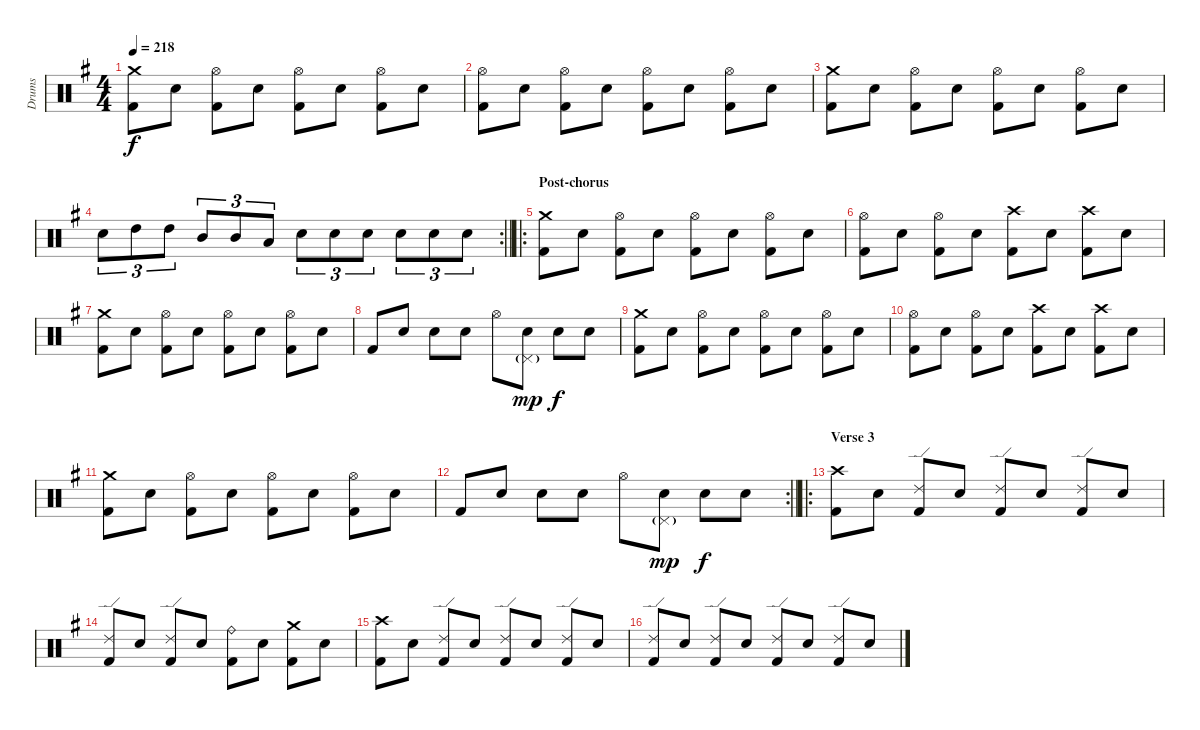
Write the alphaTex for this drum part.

\track ("Drums" "Drums") {solo instrument percussion}
\staff {score}
\articulation defaults
\ts (4 4)
\tempo 218
\clef neutral
\ks eminor
("Crash medium (hit)" "Kick (hit) 2").8{dy f} "Electric Snare (hit)".8 ("Hi-Hat (open)" "Kick (hit) 2").8 "Electric Snare (hit)".8 ("Hi-Hat (open)" "Kick (hit) 2").8 "Electric Snare (hit)".8 ("Hi-Hat (open)" "Kick (hit) 2").8 "Electric Snare (hit)".8 |
("Hi-Hat (open)" "Kick (hit) 2").8 "Electric Snare (hit)".8 ("Hi-Hat (open)" "Kick (hit) 2").8 "Electric Snare (hit)".8 ("Hi-Hat (open)" "Kick (hit) 2").8 "Electric Snare (hit)".8 ("Hi-Hat (open)" "Kick (hit) 2").8 "Electric Snare (hit)".8 |
("Crash medium (hit)" "Kick (hit) 2").8 "Electric Snare (hit)".8 ("Hi-Hat (open)" "Kick (hit) 2").8 "Electric Snare (hit)".8 ("Hi-Hat (open)" "Kick (hit) 2").8 "Electric Snare (hit)".8 ("Hi-Hat (open)" "Kick (hit) 2").8 "Electric Snare (hit)".8 |
\rc 2
\barLineRight lightlight "Electric Snare (hit)".8{tu (3 2)} "High Tom (hit)".8{tu (3 2)} "High Tom (hit)".8{tu (3 2)} "Mid Tom (hit)".8{tu (3 2)} "Mid Tom (hit)".8{tu (3 2)} "Low Tom (hit)".8{tu (3 2)} "Electric Snare (hit)".8{tu (3 2)} "Electric Snare (hit)".8{tu (3 2)} "Electric Snare (hit)".8{tu (3 2)} "Electric Snare (hit)".8{tu (3 2)} "Electric Snare (hit)".8{tu (3 2)} "Electric Snare (hit)".8{tu (3 2)}
|
\ro
\section ("" "Post-chorus")
("Crash medium (hit)" "Kick (hit) 2").8 "Electric Snare (hit)".8 ("Hi-Hat (open)" "Kick (hit) 2").8 "Electric Snare (hit)".8 ("Hi-Hat (open)" "Kick (hit) 2").8 "Electric Snare (hit)".8 ("Hi-Hat (open)" "Kick (hit) 2").8 "Electric Snare (hit)".8 |
("Hi-Hat (open)" "Kick (hit) 2").8 "Electric Snare (hit)".8 ("Hi-Hat (open)" "Kick (hit) 2").8 "Electric Snare (hit)".8 ("Crash high (hit)" "Kick (hit) 2").8 "Electric Snare (hit)".8 ("Crash high (hit)" "Kick (hit) 2").8 "Electric Snare (hit)".8 |
("Crash medium (hit)" "Kick (hit) 2").8 "Electric Snare (hit)".8 ("Hi-Hat (open)" "Kick (hit) 2").8 "Electric Snare (hit)".8 ("Hi-Hat (open)" "Kick (hit) 2").8 "Electric Snare (hit)".8 ("Hi-Hat (open)" "Kick (hit) 2").8 "Electric Snare (hit)".8 |
"Kick (hit) 2".8 "Electric Snare (hit)".8 "Electric Snare (hit)".8 "Electric Snare (hit)".8 "Hi-Hat (open)".8 ("Pedal Hi-Hat (hit)"{g} "Electric Snare (hit)").8{dy mp} "Electric Snare (hit)".8{dy f} "Electric Snare (hit)".8 |
("Crash medium (hit)" "Kick (hit) 2").8 "Electric Snare (hit)".8 ("Hi-Hat (open)" "Kick (hit) 2").8 "Electric Snare (hit)".8 ("Hi-Hat (open)" "Kick (hit) 2").8 "Electric Snare (hit)".8 ("Hi-Hat (open)" "Kick (hit) 2").8 "Electric Snare (hit)".8 |
("Hi-Hat (open)" "Kick (hit) 2").8 "Electric Snare (hit)".8 ("Hi-Hat (open)" "Kick (hit) 2").8 "Electric Snare (hit)".8 ("Crash high (hit)" "Kick (hit) 2").8 "Electric Snare (hit)".8 ("Crash high (hit)" "Kick (hit) 2").8 "Electric Snare (hit)".8 |
("Crash medium (hit)" "Kick (hit) 2").8 "Electric Snare (hit)".8 ("Hi-Hat (open)" "Kick (hit) 2").8 "Electric Snare (hit)".8 ("Hi-Hat (open)" "Kick (hit) 2").8 "Electric Snare (hit)".8 ("Hi-Hat (open)" "Kick (hit) 2").8 "Electric Snare (hit)".8 |
\rc 2
\barLineRight lightlight "Kick (hit) 2".8 "Electric Snare (hit)".8 "Electric Snare (hit)".8 "Electric Snare (hit)".8 "Hi-Hat (open)".8
("Pedal Hi-Hat (hit)"{g} "Electric Snare (hit)").8{dy mp} "Electric Snare (hit)".8{dy f} "Electric Snare (hit)".8 |
\ro
\section ("" "Verse 3")
("Crash high (hit)" "Kick (hit) 2").8 "Electric Snare (hit)".8 ("Ride (edge) 2" "Kick (hit) 2").8 "Electric Snare (hit)".8 ("Ride (edge) 2" "Kick (hit) 2").8 "Electric Snare (hit)".8 ("Ride (edge) 2" "Kick (hit) 2").8 "Electric Snare (hit)".8 |
("Ride (edge) 2" "Kick (hit) 2").8 "Electric Snare (hit)".8 ("Ride (edge) 2" "Kick (hit) 2").8 "Electric Snare (hit)".8 ("Ride (bell)" "Kick (hit) 2").8 "Electric Snare (hit)".8 ("Crash medium (hit)" "Kick (hit) 2").8 "Electric Snare (hit)".8 |
("Crash high (hit)" "Kick (hit) 2").8 "Electric Snare (hit)".8 ("Ride (edge) 2" "Kick (hit) 2").8 "Electric Snare (hit)".8 ("Ride (edge) 2" "Kick (hit) 2").8 "Electric Snare (hit)".8 ("Ride (edge) 2" "Kick (hit) 2").8 "Electric Snare (hit)".8 |
("Ride (edge) 2" "Kick (hit) 2").8 "Electric Snare (hit)".8 ("Ride (edge) 2" "Kick (hit) 2").8 "Electric Snare (hit)".8 ("Ride (edge) 2" "Kick (hit) 2").8 "Electric Snare (hit)".8 ("Ride (edge) 2" "Kick (hit) 2").8 "Electric Snare (hit)".8
